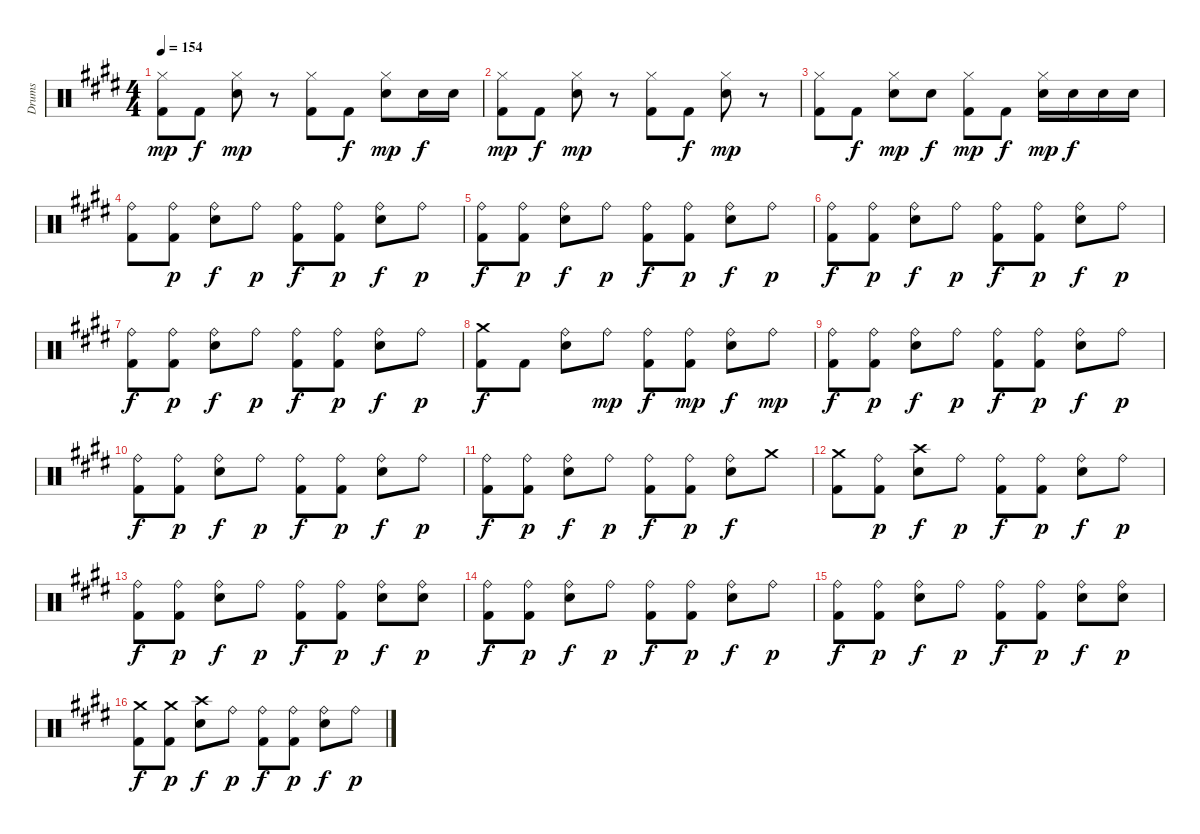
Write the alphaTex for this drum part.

\track ("Drums" "Drums") {instrument percussion}
\staff {score}
\articulation defaults
\ts (4 4)
\tempo 154
\clef neutral
\ks e
("Hi-Hat (closed)" "Kick (hit) 2").8{dy mp} "Kick (hit) 2".8{dy f} ("Hi-Hat (closed)" "Electric Snare (hit)").8{dy mp} r.8 ("Hi-Hat (closed)" "Kick (hit) 2").8 "Kick (hit) 2".8{dy f} ("Hi-Hat (closed)" "Electric Snare (hit)").8{dy mp} "Electric Snare (hit)".16{dy f} "Electric Snare (hit)".16 |
("Hi-Hat (closed)" "Kick (hit) 2").8{dy mp} "Kick (hit) 2".8{dy f} ("Hi-Hat (closed)" "Electric Snare (hit)").8{dy mp} r.8 ("Hi-Hat (closed)" "Kick (hit) 2").8 "Kick (hit) 2".8{dy f} ("Hi-Hat (closed)" "Electric Snare (hit)").8{dy mp} r.8 |
("Hi-Hat (closed)" "Kick (hit) 2").8 "Kick (hit) 2".8{dy f} ("Hi-Hat (closed)" "Electric Snare (hit)").8{dy mp} "Electric Snare (hit)".8{dy f} ("Hi-Hat (closed)" "Kick (hit) 2").8{dy mp} "Kick (hit) 2".8{dy f} ("Hi-Hat (closed)" "Electric Snare (hit)").16{dy mp} "Electric Snare (hit)".16{dy f} "Electric Snare (hit)".16 "Electric Snare (hit)".16 |
("Ride (bell)" "Kick (hit) 2").8 ("Ride (bell)" "Kick (hit) 2").8{dy p} ("Ride (bell)" "Electric Snare (hit)").8{dy f} "Ride (bell)".8{dy p} ("Ride (bell)" "Kick (hit) 2").8{dy f} ("Ride (bell)" "Kick (hit) 2").8{dy p} ("Ride (bell)" "Electric Snare (hit)").8{dy f} "Ride (bell)".8{dy p} |
("Ride (bell)" "Kick (hit) 2").8{dy f} ("Ride (bell)" "Kick (hit) 2").8{dy p} ("Ride (bell)" "Electric Snare (hit)").8{dy f} "Ride (bell)".8{dy p} ("Ride (bell)" "Kick (hit) 2").8{dy f} ("Ride (bell)" "Kick (hit) 2").8{dy p} ("Ride (bell)" "Electric Snare (hit)").8{dy f} "Ride (bell)".8{dy p} |
("Ride (bell)" "Kick (hit) 2").8{dy f} ("Ride (bell)" "Kick (hit) 2").8{dy p} ("Ride (bell)" "Electric Snare (hit)").8{dy f} "Ride (bell)".8{dy p} ("Ride (bell)" "Kick (hit) 2").8{dy f} ("Ride (bell)" "Kick (hit) 2").8{dy p} ("Ride (bell)" "Electric Snare (hit)").8{dy f} "Ride (bell)".8{dy p} |
("Ride (bell)" "Kick (hit) 2").8{dy f} ("Ride (bell)" "Kick (hit) 2").8{dy p} ("Ride (bell)" "Electric Snare (hit)").8{dy f} "Ride (bell)".8{dy p} ("Ride (bell)" "Kick (hit) 2").8{dy f} ("Ride (bell)" "Kick (hit) 2").8{dy p} ("Ride (bell)" "Electric Snare (hit)").8{dy f} "Ride (bell)".8{dy p} |
("Crash medium (hit)" "Kick (hit) 2").8{dy f} "Kick (hit) 2".8 ("Ride (bell)" "Electric Snare (hit)").8 "Ride (bell)".8{dy mp} ("Ride (bell)" "Kick (hit) 2").8{dy f} ("Ride (bell)" "Kick (hit) 2").8{dy mp} ("Ride (bell)" "Electric Snare (hit)").8{dy f} "Ride (bell)".8{dy mp} |
("Ride (bell)" "Kick (hit) 2").8{dy f} ("Ride (bell)" "Kick (hit) 2").8{dy p} ("Ride (bell)" "Electric Snare (hit)").8{dy f} "Ride (bell)".8{dy p} ("Ride (bell)" "Kick (hit) 2").8{dy f} ("Ride (bell)" "Kick (hit) 2").8{dy p} ("Ride (bell)" "Electric Snare (hit)").8{dy f} "Ride (bell)".8{dy p} |
("Ride (bell)" "Kick (hit) 2").8{dy f} ("Ride (bell)" "Kick (hit) 2").8{dy p} ("Ride (bell)" "Electric Snare (hit)").8{dy f} "Ride (bell)".8{dy p} ("Ride (bell)" "Kick (hit) 2").8{dy f} ("Ride (bell)" "Kick (hit) 2").8{dy p} ("Ride (bell)" "Electric Snare (hit)").8{dy f} "Ride (bell)".8{dy p} |
("Ride (bell)" "Kick (hit) 2").8{dy f} ("Ride (bell)" "Kick (hit) 2").8{dy p} ("Ride (bell)" "Electric Snare (hit)").8{dy f} "Ride (bell)".8{dy p} ("Ride (bell)" "Kick (hit) 2").8{dy f} ("Ride (bell)" "Kick (hit) 2").8{dy p} ("Ride (bell)" "Electric Snare (hit)").8{dy f} "Crash medium (hit)".8 |
("Crash medium (hit)" "Kick (hit) 2").8 ("Ride (bell)" "Kick (hit) 2").8{dy p} ("Crash high (hit)" "Electric Snare (hit)").8{dy f} "Ride (bell)".8{dy p} ("Ride (bell)" "Kick (hit) 2").8{dy f} ("Ride (bell)" "Kick (hit) 2").8{dy p} ("Ride (bell)" "Electric Snare (hit)").8{dy f} "Ride (bell)".8{dy p} |
("Ride (bell)" "Kick (hit) 2").8{dy f} ("Ride (bell)" "Kick (hit) 2").8{dy p} ("Ride (bell)" "Electric Snare (hit)").8{dy f} "Ride (bell)".8{dy p} ("Ride (bell)" "Kick (hit) 2").8{dy f} ("Ride (bell)" "Kick (hit) 2").8{dy p} ("Ride (bell)" "Electric Snare (hit)").8{dy f} ("Ride (bell)" "Electric Snare (hit)").8{dy p} |
("Ride (bell)" "Kick (hit) 2").8{dy f} ("Ride (bell)" "Kick (hit) 2").8{dy p} ("Ride (bell)" "Electric Snare (hit)").8{dy f} "Ride (bell)".8{dy p} ("Ride (bell)" "Kick (hit) 2").8{dy f} ("Ride (bell)" "Kick (hit) 2").8{dy p} ("Ride (bell)" "Electric Snare (hit)").8{dy f} "Ride (bell)".8{dy p} |
("Ride (bell)" "Kick (hit) 2").8{dy f} ("Ride (bell)" "Kick (hit) 2").8{dy p} ("Ride (bell)" "Electric Snare (hit)").8{dy f} "Ride (bell)".8{dy p} ("Ride (bell)" "Kick (hit) 2").8{dy f} ("Ride (bell)" "Kick (hit) 2").8{dy p} ("Ride (bell)" "Electric Snare (hit)").8{dy f} ("Ride (bell)" "Electric Snare (hit)").8{dy p} |
("Crash medium (hit)" "Kick (hit) 2").8{dy f} ("Crash medium (hit)" "Kick (hit) 2").8{dy p} ("Crash high (hit)" "Electric Snare (hit)").8{dy f} "Ride (bell)".8{dy p} ("Ride (bell)" "Kick (hit) 2").8{dy f} ("Ride (bell)" "Kick (hit) 2").8{dy p} ("Ride (bell)" "Electric Snare (hit)").8{dy f} "Ride (bell)".8{dy p}
